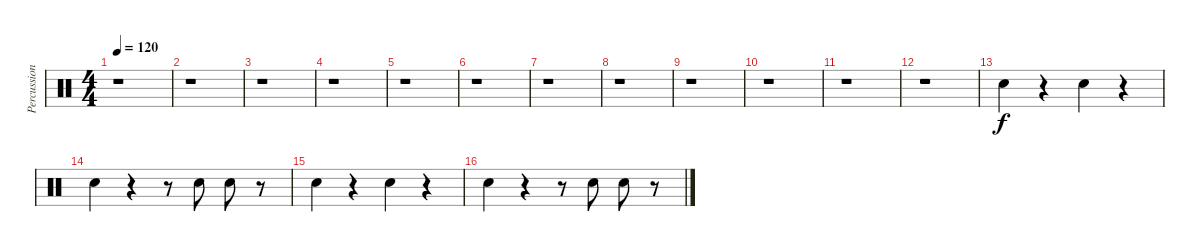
\track ("Percussions" "Percussion") {instrument percussion}
\staff {score}
\articulation defaults
\ts (4 4)
\tempo 120
\clef neutral
\ks c
r.1{dy f} |
r.1 |
r.1 |
r.1 |
r.1 |
r.1 |
r.1 |
r.1 |
r.1 |
r.1 |
r.1 |
r.1 |
"Hand Clap (hit)".4 r.4 "Hand Clap (hit)".4 r.4 |
"Hand Clap (hit)".4 r.4 r.8 "Hand Clap (hit)".8 "Hand Clap (hit)".8 r.8 |
"Hand Clap (hit)".4 r.4 "Hand Clap (hit)".4 r.4 |
"Hand Clap (hit)".4 r.4 r.8 "Hand Clap (hit)".8 "Hand Clap (hit)".8 r.8
